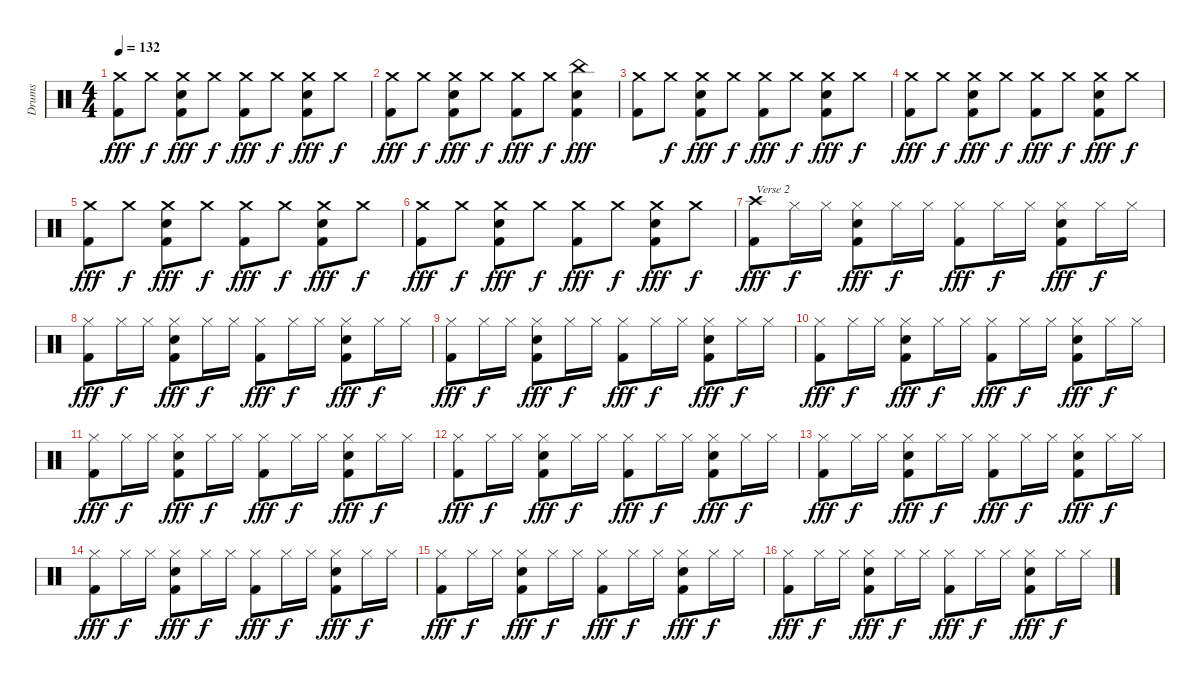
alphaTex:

\track ("Drums" "Drums") {instrument percussion}
\staff {score}
\articulation defaults
\ts (4 4)
\tempo 132
\clef neutral
\ks c
("Crash medium (hit)" "Kick (hit) 2").8{dy fff} "Crash medium (hit)".8{dy f} ("Crash medium (hit)" "Snare (hit) 2" "Kick (hit) 2").8{dy fff} "Crash medium (hit)".8{dy f} ("Crash medium (hit)" "Kick (hit) 2").8{dy fff} "Crash medium (hit)".8{dy f} ("Crash medium (hit)" "Snare (hit) 2" "Kick (hit) 2").8{dy fff} "Crash medium (hit)".8{dy f} |
("Crash medium (hit)" "Kick (hit) 2").8{dy fff} "Crash medium (hit)".8{dy f} ("Crash medium (hit)" "Snare (hit) 2" "Kick (hit) 2").8{dy fff} "Crash medium (hit)".8{dy f} ("Crash medium (hit)" "Kick (hit) 2").8{dy fff} "Crash medium (hit)".8{dy f} ("China (hit)" "Snare (hit) 2" "Kick (hit) 2").4{dy fff} |
("Crash medium (hit)" "Kick (hit) 2").8 "Crash medium (hit)".8{dy f} ("Crash medium (hit)" "Snare (hit) 2" "Kick (hit) 2").8{dy fff} "Crash medium (hit)".8{dy f} ("Crash medium (hit)" "Kick (hit) 2").8{dy fff} "Crash medium (hit)".8{dy f} ("Crash medium (hit)" "Snare (hit) 2" "Kick (hit) 2").8{dy fff} "Crash medium (hit)".8{dy f} |
("Crash medium (hit)" "Kick (hit) 2").8{dy fff} "Crash medium (hit)".8{dy f} ("Crash medium (hit)" "Snare (hit) 2" "Kick (hit) 2").8{dy fff} "Crash medium (hit)".8{dy f} ("Crash medium (hit)" "Kick (hit) 2").8{dy fff} "Crash medium (hit)".8{dy f} ("Crash medium (hit)" "Snare (hit) 2" "Kick (hit) 2").8{dy fff} "Crash medium (hit)".8{dy f} |
("Crash medium (hit)" "Kick (hit) 2").8{dy fff} "Crash medium (hit)".8{dy f} ("Crash medium (hit)" "Snare (hit) 2" "Kick (hit) 2").8{dy fff} "Crash medium (hit)".8{dy f} ("Crash medium (hit)" "Kick (hit) 2").8{dy fff} "Crash medium (hit)".8{dy f} ("Crash medium (hit)" "Snare (hit) 2" "Kick (hit) 2").8{dy fff} "Crash medium (hit)".8{dy f} |
("Crash medium (hit)" "Kick (hit) 2").8{dy fff} "Crash medium (hit)".8{dy f} ("Crash medium (hit)" "Snare (hit) 2" "Kick (hit) 2").8{dy fff} "Crash medium (hit)".8{dy f} ("Crash medium (hit)" "Kick (hit) 2").8{dy fff} "Crash medium (hit)".8{dy f} ("Crash medium (hit)" "Snare (hit) 2" "Kick (hit) 2").8{dy fff} "Crash medium (hit)".8{dy f} |
("Crash high (hit)" "Kick (hit) 2").8{txt "Verse 2" dy fff} "Hi-Hat (closed)".16{dy f} "Hi-Hat (closed)".16 ("Hi-Hat (closed)" "Snare (hit) 2" "Kick (hit) 2").8{dy fff} "Hi-Hat (closed)".16{dy f} "Hi-Hat (closed)".16 ("Hi-Hat (closed)" "Kick (hit) 2").8{dy fff} "Hi-Hat (closed)".16{dy f} "Hi-Hat (closed)".16 ("Hi-Hat (closed)" "Snare (hit) 2" "Kick (hit) 2").8{dy fff} "Hi-Hat (closed)".16{dy f} "Hi-Hat (closed)".16 |
("Hi-Hat (closed)" "Kick (hit) 2").8{dy fff} "Hi-Hat (closed)".16{dy f} "Hi-Hat (closed)".16 ("Hi-Hat (closed)" "Snare (hit) 2" "Kick (hit) 2").8{dy fff} "Hi-Hat (closed)".16{dy f} "Hi-Hat (closed)".16 ("Hi-Hat (closed)" "Kick (hit) 2").8{dy fff} "Hi-Hat (closed)".16{dy f} "Hi-Hat (closed)".16 ("Hi-Hat (closed)" "Snare (hit) 2" "Kick (hit) 2").8{dy fff} "Hi-Hat (closed)".16{dy f} "Hi-Hat (closed)".16 |
("Hi-Hat (closed)" "Kick (hit) 2").8{dy fff} "Hi-Hat (closed)".16{dy f} "Hi-Hat (closed)".16 ("Hi-Hat (closed)" "Snare (hit) 2" "Kick (hit) 2").8{dy fff} "Hi-Hat (closed)".16{dy f} "Hi-Hat (closed)".16 ("Hi-Hat (closed)" "Kick (hit) 2").8{dy fff} "Hi-Hat (closed)".16{dy f} "Hi-Hat (closed)".16 ("Hi-Hat (closed)" "Snare (hit) 2" "Kick (hit) 2").8{dy fff} "Hi-Hat (closed)".16{dy f} "Hi-Hat (closed)".16 |
("Hi-Hat (closed)" "Kick (hit) 2").8{dy fff} "Hi-Hat (closed)".16{dy f} "Hi-Hat (closed)".16 ("Hi-Hat (closed)" "Snare (hit) 2" "Kick (hit) 2").8{dy fff} "Hi-Hat (closed)".16{dy f} "Hi-Hat (closed)".16 ("Hi-Hat (closed)" "Kick (hit) 2").8{dy fff} "Hi-Hat (closed)".16{dy f} "Hi-Hat (closed)".16 ("Hi-Hat (closed)" "Snare (hit) 2" "Kick (hit) 2").8{dy fff} "Hi-Hat (closed)".16{dy f} "Hi-Hat (closed)".16 |
("Hi-Hat (closed)" "Kick (hit) 2").8{dy fff} "Hi-Hat (closed)".16{dy f} "Hi-Hat (closed)".16 ("Hi-Hat (closed)" "Snare (hit) 2" "Kick (hit) 2").8{dy fff} "Hi-Hat (closed)".16{dy f} "Hi-Hat (closed)".16 ("Hi-Hat (closed)" "Kick (hit) 2").8{dy fff} "Hi-Hat (closed)".16{dy f} "Hi-Hat (closed)".16 ("Hi-Hat (closed)" "Snare (hit) 2" "Kick (hit) 2").8{dy fff} "Hi-Hat (closed)".16{dy f} "Hi-Hat (closed)".16 |
("Hi-Hat (closed)" "Kick (hit) 2").8{dy fff} "Hi-Hat (closed)".16{dy f} "Hi-Hat (closed)".16 ("Hi-Hat (closed)" "Snare (hit) 2" "Kick (hit) 2").8{dy fff} "Hi-Hat (closed)".16{dy f} "Hi-Hat (closed)".16 ("Hi-Hat (closed)" "Kick (hit) 2").8{dy fff} "Hi-Hat (closed)".16{dy f} "Hi-Hat (closed)".16 ("Hi-Hat (closed)" "Snare (hit) 2" "Kick (hit) 2").8{dy fff} "Hi-Hat (closed)".16{dy f} "Hi-Hat (closed)".16 |
("Hi-Hat (closed)" "Kick (hit) 2").8{dy fff} "Hi-Hat (closed)".16{dy f} "Hi-Hat (closed)".16 ("Hi-Hat (closed)" "Snare (hit) 2" "Kick (hit) 2").8{dy fff} "Hi-Hat (closed)".16{dy f} "Hi-Hat (closed)".16 ("Hi-Hat (closed)" "Kick (hit) 2").8{dy fff} "Hi-Hat (closed)".16{dy f} "Hi-Hat (closed)".16 ("Hi-Hat (closed)" "Snare (hit) 2" "Kick (hit) 2").8{dy fff} "Hi-Hat (closed)".16{dy f} "Hi-Hat (closed)".16 |
("Hi-Hat (closed)" "Kick (hit) 2").8{dy fff} "Hi-Hat (closed)".16{dy f} "Hi-Hat (closed)".16 ("Hi-Hat (closed)" "Snare (hit) 2" "Kick (hit) 2").8{dy fff} "Hi-Hat (closed)".16{dy f} "Hi-Hat (closed)".16 ("Hi-Hat (closed)" "Kick (hit) 2").8{dy fff} "Hi-Hat (closed)".16{dy f} "Hi-Hat (closed)".16 ("Hi-Hat (closed)" "Snare (hit) 2" "Kick (hit) 2").8{dy fff} "Hi-Hat (closed)".16{dy f} "Hi-Hat (closed)".16 |
("Hi-Hat (closed)" "Kick (hit) 2").8{dy fff} "Hi-Hat (closed)".16{dy f} "Hi-Hat (closed)".16 ("Hi-Hat (closed)" "Snare (hit) 2" "Kick (hit) 2").8{dy fff} "Hi-Hat (closed)".16{dy f} "Hi-Hat (closed)".16 ("Hi-Hat (closed)" "Kick (hit) 2").8{dy fff} "Hi-Hat (closed)".16{dy f} "Hi-Hat (closed)".16 ("Hi-Hat (closed)" "Snare (hit) 2" "Kick (hit) 2").8{dy fff} "Hi-Hat (closed)".16{dy f} "Hi-Hat (closed)".16 |
("Hi-Hat (closed)" "Kick (hit) 2").8{dy fff} "Hi-Hat (closed)".16{dy f} "Hi-Hat (closed)".16 ("Hi-Hat (closed)" "Snare (hit) 2" "Kick (hit) 2").8{dy fff} "Hi-Hat (closed)".16{dy f} "Hi-Hat (closed)".16 ("Hi-Hat (closed)" "Kick (hit) 2").8{dy fff} "Hi-Hat (closed)".16{dy f} "Hi-Hat (closed)".16 ("Hi-Hat (closed)" "Snare (hit) 2" "Kick (hit) 2").8{dy fff} "Hi-Hat (closed)".16{dy f} "Hi-Hat (closed)".16
